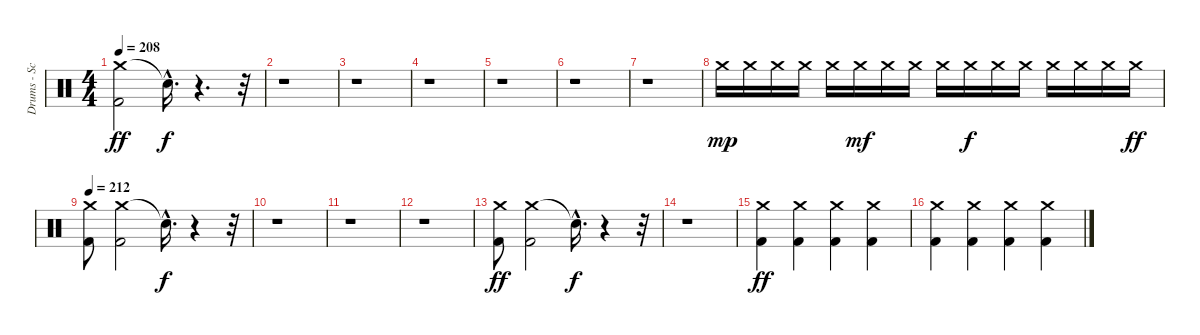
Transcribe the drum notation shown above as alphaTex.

\track ("Drums - Scott" "Drums - Sc") {instrument percussion}
\staff {score}
\articulation defaults
\ts (4 4)
\tempo 208
\clef neutral
\ks c
("Crash medium (hit)" "Kick (hit) 2").2{dy ff} "Snare (hit)"{hac t}.16{d dy f} r.4{d} r.32 |
r.1 |
r.1 |
r.1 |
r.1 |
r.1 |
r.1 |
"Crash medium (hit)".16{dy mp} "Crash medium (hit)".16 "Crash medium (hit)".16 "Crash medium (hit)".16 "Crash medium (hit)".16 "Crash medium (hit)".16{dy mf} "Crash medium (hit)".16 "Crash medium (hit)".16 "Crash medium (hit)".16 "Crash medium (hit)".16{dy f} "Crash medium (hit)".16 "Crash medium (hit)".16 "Crash medium (hit)".16 "Crash medium (hit)".16 "Crash medium (hit)".16 "Crash medium (hit)".16{dy ff} |
\tempo 212
("Crash medium (hit)" "Kick (hit) 2").8 ("Crash medium (hit)" "Kick (hit) 2").2 "Snare (hit)"{hac t}.16{d dy f} r.4 r.32 |
r.1 |
r.1 |
r.1 |
("Crash medium (hit)" "Kick (hit) 2").8{dy ff} ("Crash medium (hit)" "Kick (hit) 2").2 "Snare (hit)"{hac t}.16{d dy f} r.4 r.32 |
r.1 |
("Kick (hit) 2" "Crash medium (hit)").4{dy ff} ("Kick (hit) 2" "Crash medium (hit)").4 ("Kick (hit) 2" "Crash medium (hit)").4 ("Kick (hit) 2" "Crash medium (hit)").4 |
("Kick (hit) 2" "Crash medium (hit)").4 ("Kick (hit) 2" "Crash medium (hit)").4 ("Kick (hit) 2" "Crash medium (hit)").4 ("Kick (hit) 2" "Crash medium (hit)").4
